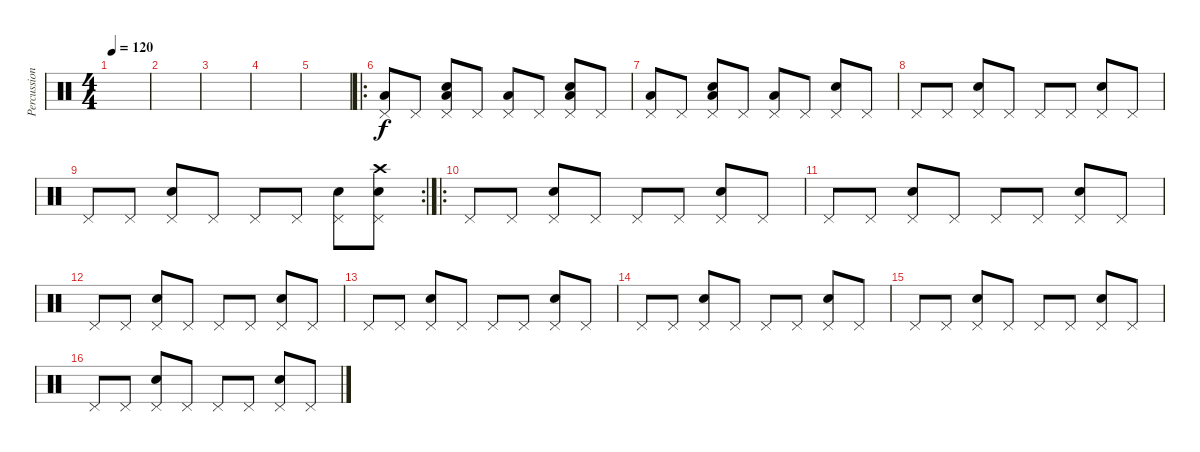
\track ("Percussions" "Percussion") {instrument percussion}
\staff {score}
\articulation defaults
\ts (4 4)
\tempo 120
\clef neutral
\ks c
|
|
|
|
|
\ro
("Pedal Hi-Hat (hit)" "Low Floor Tom (hit)").8 "Pedal Hi-Hat (hit)".8 ("Pedal Hi-Hat (hit)" "Electric Snare (hit)" "Low Floor Tom (hit)").8 "Pedal Hi-Hat (hit)".8 ("Pedal Hi-Hat (hit)" "Low Floor Tom (hit)").8 "Pedal Hi-Hat (hit)".8 ("Pedal Hi-Hat (hit)" "Electric Snare (hit)" "Low Floor Tom (hit)").8 "Pedal Hi-Hat (hit)".8 |
("Pedal Hi-Hat (hit)" "Low Floor Tom (hit)").8 "Pedal Hi-Hat (hit)".8 ("Pedal Hi-Hat (hit)" "Electric Snare (hit)" "Low Floor Tom (hit)").8 "Pedal Hi-Hat (hit)".8 ("Pedal Hi-Hat (hit)" "Low Floor Tom (hit)").8 "Pedal Hi-Hat (hit)".8 ("Pedal Hi-Hat (hit)" "Electric Snare (hit)").8 "Pedal Hi-Hat (hit)".8 |
"Pedal Hi-Hat (hit)".8 "Pedal Hi-Hat (hit)".8 ("Pedal Hi-Hat (hit)" "Electric Snare (hit)").8 "Pedal Hi-Hat (hit)".8 "Pedal Hi-Hat (hit)".8 "Pedal Hi-Hat (hit)".8 ("Pedal Hi-Hat (hit)" "Electric Snare (hit)").8 "Pedal Hi-Hat (hit)".8 |
\rc 2 "Pedal Hi-Hat (hit)".8 "Pedal Hi-Hat (hit)".8
("Pedal Hi-Hat (hit)" "Electric Snare (hit)").8 "Pedal Hi-Hat (hit)".8 "Pedal Hi-Hat (hit)".8 "Pedal Hi-Hat (hit)".8 ("Pedal Hi-Hat (hit)" "Electric Snare (hit)").8 ("Pedal Hi-Hat (hit)" "Electric Snare (hit)" "Crash high (hit)").8 |
\ro "Pedal Hi-Hat (hit)".8 "Pedal Hi-Hat (hit)".8
("Pedal Hi-Hat (hit)" "Electric Snare (hit)").8 "Pedal Hi-Hat (hit)".8 "Pedal Hi-Hat (hit)".8 "Pedal Hi-Hat (hit)".8 ("Pedal Hi-Hat (hit)" "Electric Snare (hit)").8 "Pedal Hi-Hat (hit)".8 |
"Pedal Hi-Hat (hit)".8 "Pedal Hi-Hat (hit)".8 ("Pedal Hi-Hat (hit)" "Electric Snare (hit)").8 "Pedal Hi-Hat (hit)".8 "Pedal Hi-Hat (hit)".8 "Pedal Hi-Hat (hit)".8 ("Pedal Hi-Hat (hit)" "Electric Snare (hit)").8 "Pedal Hi-Hat (hit)".8 |
"Pedal Hi-Hat (hit)".8 "Pedal Hi-Hat (hit)".8 ("Pedal Hi-Hat (hit)" "Electric Snare (hit)").8 "Pedal Hi-Hat (hit)".8 "Pedal Hi-Hat (hit)".8 "Pedal Hi-Hat (hit)".8 ("Pedal Hi-Hat (hit)" "Electric Snare (hit)").8 "Pedal Hi-Hat (hit)".8 |
"Pedal Hi-Hat (hit)".8 "Pedal Hi-Hat (hit)".8 ("Pedal Hi-Hat (hit)" "Electric Snare (hit)").8 "Pedal Hi-Hat (hit)".8 "Pedal Hi-Hat (hit)".8 "Pedal Hi-Hat (hit)".8 ("Pedal Hi-Hat (hit)" "Electric Snare (hit)").8 "Pedal Hi-Hat (hit)".8 |
"Pedal Hi-Hat (hit)".8 "Pedal Hi-Hat (hit)".8 ("Pedal Hi-Hat (hit)" "Electric Snare (hit)").8 "Pedal Hi-Hat (hit)".8 "Pedal Hi-Hat (hit)".8 "Pedal Hi-Hat (hit)".8 ("Pedal Hi-Hat (hit)" "Electric Snare (hit)").8 "Pedal Hi-Hat (hit)".8 |
"Pedal Hi-Hat (hit)".8 "Pedal Hi-Hat (hit)".8 ("Pedal Hi-Hat (hit)" "Electric Snare (hit)").8 "Pedal Hi-Hat (hit)".8 "Pedal Hi-Hat (hit)".8 "Pedal Hi-Hat (hit)".8 ("Pedal Hi-Hat (hit)" "Electric Snare (hit)").8 "Pedal Hi-Hat (hit)".8 |
"Pedal Hi-Hat (hit)".8 "Pedal Hi-Hat (hit)".8 ("Pedal Hi-Hat (hit)" "Electric Snare (hit)").8 "Pedal Hi-Hat (hit)".8 "Pedal Hi-Hat (hit)".8 "Pedal Hi-Hat (hit)".8 ("Pedal Hi-Hat (hit)" "Electric Snare (hit)").8 "Pedal Hi-Hat (hit)".8
